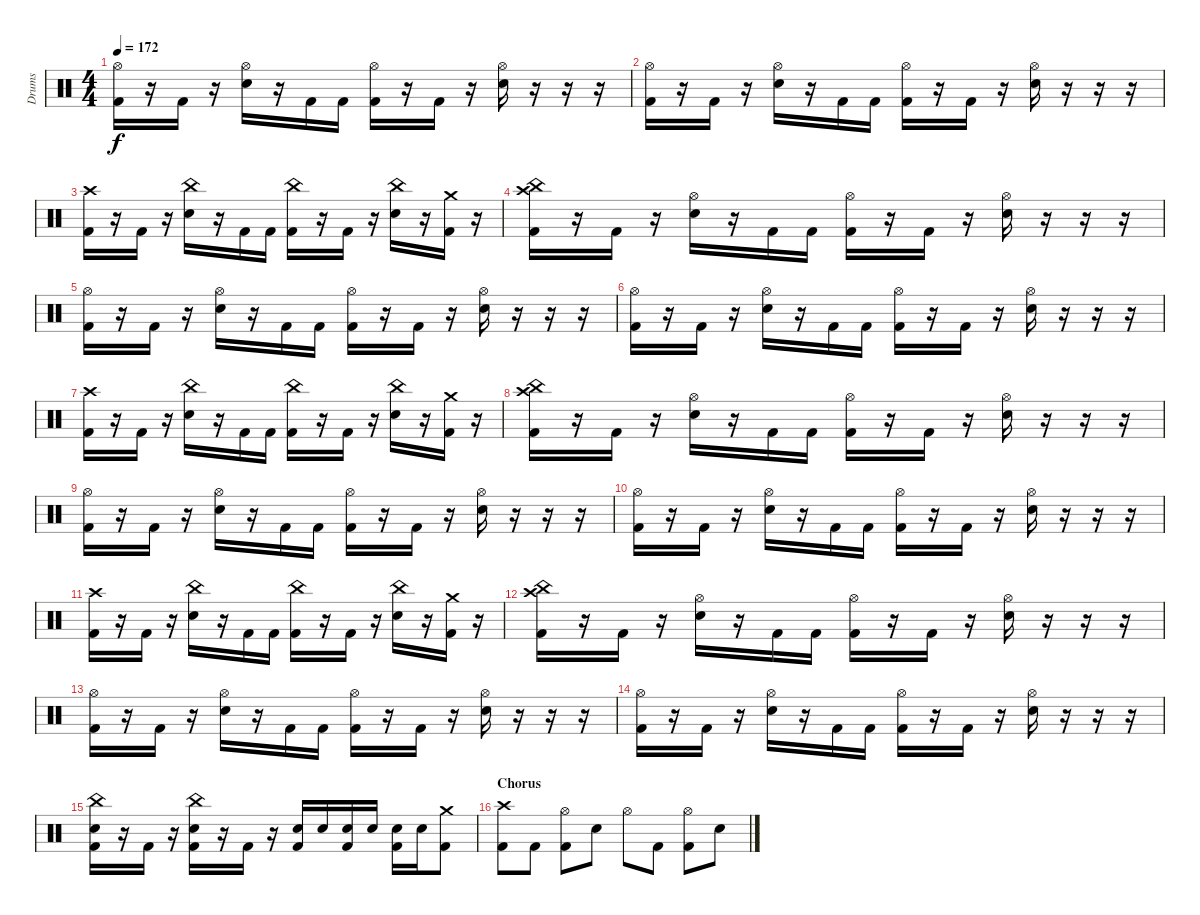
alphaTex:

\track ("Drums" "Drums") {instrument percussion}
\staff {score}
\articulation defaults
\ts (4 4)
\tempo 172
\clef neutral
\ks c
("Hi-Hat (open)" "Kick (hit) 2").16{dy f} r.16 "Kick (hit) 2".16 r.16 ("Hi-Hat (open)" "Electric Snare (hit)").16 r.16 "Kick (hit) 2".16 "Kick (hit) 2".16 ("Hi-Hat (open)" "Kick (hit) 2").16 r.16 "Kick (hit) 2".16 r.16 ("Hi-Hat (open)" "Electric Snare (hit)").16 r.16 r.16 r.16 |
("Hi-Hat (open)" "Kick (hit) 2").16 r.16 "Kick (hit) 2".16 r.16 ("Hi-Hat (open)" "Electric Snare (hit)").16 r.16 "Kick (hit) 2".16 "Kick (hit) 2".16 ("Hi-Hat (open)" "Kick (hit) 2").16 r.16 "Kick (hit) 2".16 r.16 ("Hi-Hat (open)" "Electric Snare (hit)").16 r.16 r.16 r.16 |
("Crash high (hit)" "Kick (hit) 2").16 r.16 "Kick (hit) 2".16 r.16 ("China (hit)" "Electric Snare (hit)").16 r.16 "Kick (hit) 2".16 "Kick (hit) 2".16 ("China (hit)" "Kick (hit) 2").16 r.16 "Kick (hit) 2".16 r.16 ("China (hit)" "Electric Snare (hit)").16 r.16 ("Crash medium (hit)" "Kick (hit) 2").16 r.16 |
("Crash high (hit)" "China (hit)" "Kick (hit) 2").16 r.16 "Kick (hit) 2".16 r.16 ("Hi-Hat (open)" "Electric Snare (hit)").16 r.16 "Kick (hit) 2".16 "Kick (hit) 2".16 ("Hi-Hat (open)" "Kick (hit) 2").16 r.16 "Kick (hit) 2".16 r.16 ("Hi-Hat (open)" "Electric Snare (hit)").16 r.16 r.16 r.16 |
("Hi-Hat (open)" "Kick (hit) 2").16 r.16 "Kick (hit) 2".16 r.16 ("Hi-Hat (open)" "Electric Snare (hit)").16 r.16 "Kick (hit) 2".16 "Kick (hit) 2".16 ("Hi-Hat (open)" "Kick (hit) 2").16 r.16 "Kick (hit) 2".16 r.16 ("Hi-Hat (open)" "Electric Snare (hit)").16 r.16 r.16 r.16 |
("Hi-Hat (open)" "Kick (hit) 2").16 r.16 "Kick (hit) 2".16 r.16 ("Hi-Hat (open)" "Electric Snare (hit)").16 r.16 "Kick (hit) 2".16 "Kick (hit) 2".16 ("Hi-Hat (open)" "Kick (hit) 2").16 r.16 "Kick (hit) 2".16 r.16 ("Hi-Hat (open)" "Electric Snare (hit)").16 r.16 r.16 r.16 |
("Crash high (hit)" "Kick (hit) 2").16 r.16 "Kick (hit) 2".16 r.16 ("China (hit)" "Electric Snare (hit)").16 r.16 "Kick (hit) 2".16 "Kick (hit) 2".16 ("China (hit)" "Kick (hit) 2").16 r.16 "Kick (hit) 2".16 r.16 ("China (hit)" "Electric Snare (hit)").16 r.16 ("Crash medium (hit)" "Kick (hit) 2").16 r.16 |
("Crash high (hit)" "China (hit)" "Kick (hit) 2").16 r.16 "Kick (hit) 2".16 r.16 ("Hi-Hat (open)" "Electric Snare (hit)").16 r.16 "Kick (hit) 2".16 "Kick (hit) 2".16 ("Hi-Hat (open)" "Kick (hit) 2").16 r.16 "Kick (hit) 2".16 r.16 ("Hi-Hat (open)" "Electric Snare (hit)").16 r.16 r.16 r.16 |
("Hi-Hat (open)" "Kick (hit) 2").16 r.16 "Kick (hit) 2".16 r.16 ("Hi-Hat (open)" "Electric Snare (hit)").16 r.16 "Kick (hit) 2".16 "Kick (hit) 2".16 ("Hi-Hat (open)" "Kick (hit) 2").16 r.16 "Kick (hit) 2".16 r.16 ("Hi-Hat (open)" "Electric Snare (hit)").16 r.16 r.16 r.16 |
("Hi-Hat (open)" "Kick (hit) 2").16 r.16 "Kick (hit) 2".16 r.16 ("Hi-Hat (open)" "Electric Snare (hit)").16 r.16 "Kick (hit) 2".16 "Kick (hit) 2".16 ("Hi-Hat (open)" "Kick (hit) 2").16 r.16 "Kick (hit) 2".16 r.16 ("Hi-Hat (open)" "Electric Snare (hit)").16 r.16 r.16 r.16 |
("Crash high (hit)" "Kick (hit) 2").16 r.16 "Kick (hit) 2".16 r.16 ("China (hit)" "Electric Snare (hit)").16 r.16 "Kick (hit) 2".16 "Kick (hit) 2".16 ("China (hit)" "Kick (hit) 2").16 r.16 "Kick (hit) 2".16 r.16 ("China (hit)" "Electric Snare (hit)").16 r.16 ("Crash medium (hit)" "Kick (hit) 2").16 r.16 |
("Crash high (hit)" "China (hit)" "Kick (hit) 2").16 r.16 "Kick (hit) 2".16 r.16 ("Hi-Hat (open)" "Electric Snare (hit)").16 r.16 "Kick (hit) 2".16 "Kick (hit) 2".16 ("Hi-Hat (open)" "Kick (hit) 2").16 r.16 "Kick (hit) 2".16 r.16 ("Hi-Hat (open)" "Electric Snare (hit)").16 r.16 r.16 r.16 |
("Hi-Hat (open)" "Kick (hit) 2").16 r.16 "Kick (hit) 2".16 r.16 ("Hi-Hat (open)" "Electric Snare (hit)").16 r.16 "Kick (hit) 2".16 "Kick (hit) 2".16 ("Hi-Hat (open)" "Kick (hit) 2").16 r.16 "Kick (hit) 2".16 r.16 ("Hi-Hat (open)" "Electric Snare (hit)").16 r.16 r.16 r.16 |
("Hi-Hat (open)" "Kick (hit) 2").16 r.16 "Kick (hit) 2".16 r.16 ("Hi-Hat (open)" "Electric Snare (hit)").16 r.16 "Kick (hit) 2".16 "Kick (hit) 2".16 ("Hi-Hat (open)" "Kick (hit) 2").16 r.16 "Kick (hit) 2".16 r.16 ("Hi-Hat (open)" "Electric Snare (hit)").16 r.16 r.16 r.16 |
("China (hit)" "Electric Snare (hit)" "Kick (hit) 2").16 r.16 "Kick (hit) 2".16 r.16 ("China (hit)" "Electric Snare (hit)" "Kick (hit) 2").16 r.16 "Kick (hit) 2".16 r.16 ("Electric Snare (hit)" "Kick (hit) 2").16 "Electric Snare (hit)".16 ("Electric Snare (hit)" "Kick (hit) 2").16 "Electric Snare (hit)".16 ("Electric Snare (hit)" "Kick (hit) 2").16 "Electric Snare (hit)".16 ("Crash medium (hit)" "Kick (hit) 2").8 |
\section ("" "Chorus")
("Crash high (hit)" "Kick (hit) 2").8 "Kick (hit) 2".8 ("Hi-Hat (open)" "Kick (hit) 2").8 "Electric Snare (hit)".8 "Hi-Hat (open)".8 "Kick (hit) 2".8 ("Hi-Hat (open)" "Kick (hit) 2").8 "Electric Snare (hit)".8
